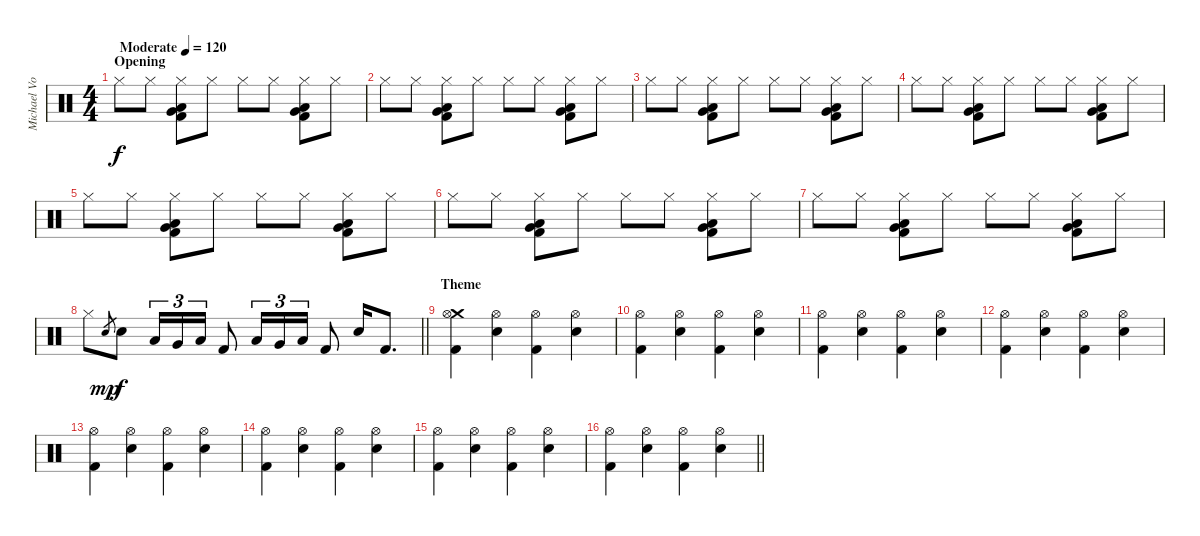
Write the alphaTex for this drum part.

\track ("Michael Von Knorring" "Michael Vo") {instrument percussion}
\staff {score}
\articulation defaults
\ts (4 4)
\section ("" "Opening")
\tempo (120 "Moderate")
\clef neutral
\ks c "Hi-Hat (closed)".8{dy f} "Hi-Hat (closed)".8
("Kick (hit) 2" "Hi-Hat (closed)" "Very Low Tom (hit)" "Low Floor Tom (hit)").8 "Hi-Hat (closed)".8 "Hi-Hat (closed)".8 "Hi-Hat (closed)".8 ("Kick (hit) 2" "Hi-Hat (closed)" "Very Low Tom (hit)" "Low Floor Tom (hit)").8 "Hi-Hat (closed)".8 |
"Hi-Hat (closed)".8 "Hi-Hat (closed)".8 ("Kick (hit) 2" "Hi-Hat (closed)" "Very Low Tom (hit)" "Low Floor Tom (hit)").8 "Hi-Hat (closed)".8 "Hi-Hat (closed)".8 "Hi-Hat (closed)".8 ("Kick (hit) 2" "Hi-Hat (closed)" "Very Low Tom (hit)" "Low Floor Tom (hit)").8 "Hi-Hat (closed)".8 |
"Hi-Hat (closed)".8 "Hi-Hat (closed)".8 ("Kick (hit) 2" "Hi-Hat (closed)" "Very Low Tom (hit)" "Low Floor Tom (hit)").8 "Hi-Hat (closed)".8 "Hi-Hat (closed)".8 "Hi-Hat (closed)".8 ("Kick (hit) 2" "Hi-Hat (closed)" "Very Low Tom (hit)" "Low Floor Tom (hit)").8 "Hi-Hat (closed)".8 |
"Hi-Hat (closed)".8 "Hi-Hat (closed)".8 ("Kick (hit) 2" "Hi-Hat (closed)" "Very Low Tom (hit)" "Low Floor Tom (hit)").8 "Hi-Hat (closed)".8 "Hi-Hat (closed)".8 "Hi-Hat (closed)".8 ("Kick (hit) 2" "Hi-Hat (closed)" "Very Low Tom (hit)" "Low Floor Tom (hit)").8 "Hi-Hat (closed)".8 |
"Hi-Hat (closed)".8 "Hi-Hat (closed)".8 ("Kick (hit) 2" "Hi-Hat (closed)" "Very Low Tom (hit)" "Low Floor Tom (hit)").8 "Hi-Hat (closed)".8 "Hi-Hat (closed)".8 "Hi-Hat (closed)".8 ("Kick (hit) 2" "Hi-Hat (closed)" "Very Low Tom (hit)" "Low Floor Tom (hit)").8 "Hi-Hat (closed)".8 |
"Hi-Hat (closed)".8 "Hi-Hat (closed)".8 ("Kick (hit) 2" "Hi-Hat (closed)" "Very Low Tom (hit)" "Low Floor Tom (hit)").8 "Hi-Hat (closed)".8 "Hi-Hat (closed)".8 "Hi-Hat (closed)".8 ("Kick (hit) 2" "Hi-Hat (closed)" "Very Low Tom (hit)" "Low Floor Tom (hit)").8 "Hi-Hat (closed)".8 |
"Hi-Hat (closed)".8 "Hi-Hat (closed)".8 ("Kick (hit) 2" "Hi-Hat (closed)" "Very Low Tom (hit)" "Low Floor Tom (hit)").8 "Hi-Hat (closed)".8 "Hi-Hat (closed)".8 "Hi-Hat (closed)".8 ("Kick (hit) 2" "Hi-Hat (closed)" "Very Low Tom (hit)" "Low Floor Tom (hit)").8 "Hi-Hat (closed)".8 |
\barLineRight lightlight "Hi-Hat (closed)".8 "Snare (hit) 2".8{gr dy mp} "Snare (hit) 2".8{dy f} "Low Tom (hit)".16{tu (3 2)} "Very Low Tom (hit)".16{tu (3 2)} "Low Floor Tom (hit)".16{tu (3 2)} "Kick (hit) 2".8 "Low Tom (hit)".16{tu (3 2)} "Very Low Tom (hit)".16{tu (3 2)} "Low Floor Tom (hit)".16{tu (3 2)} "Kick (hit) 2".8 "Snare (hit) 2".16 "Kick (hit) 2".8{d}
|
\section ("" "Theme")
("Crash medium (hit)" "Hi-Hat (open)" "Kick (hit) 2").4 ("Hi-Hat (open)" "Snare (hit) 2").4 ("Hi-Hat (open)" "Kick (hit) 2").4 ("Hi-Hat (open)" "Snare (hit) 2").4 |
("Hi-Hat (open)" "Kick (hit) 2").4 ("Hi-Hat (open)" "Snare (hit) 2").4 ("Hi-Hat (open)" "Kick (hit) 2").4 ("Hi-Hat (open)" "Snare (hit) 2").4 |
("Hi-Hat (open)" "Kick (hit) 2").4 ("Hi-Hat (open)" "Snare (hit) 2").4 ("Hi-Hat (open)" "Kick (hit) 2").4 ("Hi-Hat (open)" "Snare (hit) 2").4 |
("Hi-Hat (open)" "Kick (hit) 2").4 ("Hi-Hat (open)" "Snare (hit) 2").4 ("Hi-Hat (open)" "Kick (hit) 2").4 ("Hi-Hat (open)" "Snare (hit) 2").4 |
("Hi-Hat (open)" "Kick (hit) 2").4 ("Hi-Hat (open)" "Snare (hit) 2").4 ("Hi-Hat (open)" "Kick (hit) 2").4 ("Hi-Hat (open)" "Snare (hit) 2").4 |
("Hi-Hat (open)" "Kick (hit) 2").4 ("Hi-Hat (open)" "Snare (hit) 2").4 ("Hi-Hat (open)" "Kick (hit) 2").4 ("Hi-Hat (open)" "Snare (hit) 2").4 |
("Hi-Hat (open)" "Kick (hit) 2").4 ("Hi-Hat (open)" "Snare (hit) 2").4 ("Hi-Hat (open)" "Kick (hit) 2").4 ("Hi-Hat (open)" "Snare (hit) 2").4 |
\barLineRight lightlight
("Hi-Hat (open)" "Kick (hit) 2").4 ("Hi-Hat (open)" "Snare (hit) 2").4 ("Hi-Hat (open)" "Kick (hit) 2").4 ("Hi-Hat (open)" "Snare (hit) 2").4
